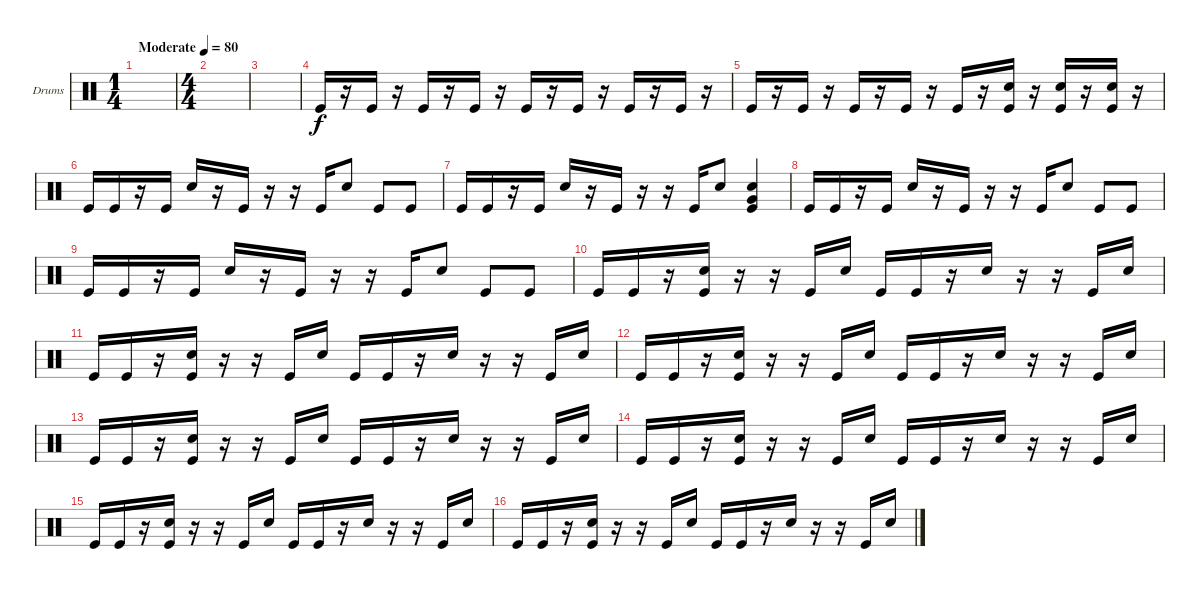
\bracketExtendMode groupsimilarinstruments
\firstSystemTrackNameOrientation horizontal
\otherSystemsTrackNameOrientation horizontal
\track ("Drumkit" "Drums") {instrument percussion}
\staff {score}
\articulation defaults
\ts (1 4)
\beaming (8 2)
\tempo (80 "Moderate")
\clef neutral
\scale
0.391473
\ks c
|
\ts (4 4)
\beaming (8 2 2 2 2)
\scale
0.391473 |
\scale
0.217054 |
\scale
0.333333 "Kick (hit)".16 r.16 "Kick (hit)".16 r.16 "Kick (hit)".16 r.16 "Kick (hit)".16 r.16 "Kick (hit)".16 r.16 "Kick (hit)".16 r.16 "Kick (hit)".16 r.16 "Kick (hit)".16 r.16 |
\scale
0.333333 "Kick (hit)".16 r.16 "Kick (hit)".16 r.16 "Kick (hit)".16 r.16 "Kick (hit)".16 r.16 "Kick (hit)".16 r.16 ("Kick (hit)" "Snare (hit) 2").16 r.16 ("Kick (hit)" "Snare (hit) 2").16 r.16 ("Kick (hit)" "Snare (hit) 2").16 r.16 |
\scale
0.333333 "Kick (hit)".16 "Kick (hit)".16 r.16 "Kick (hit)".16 "Snare (hit) 2".16 r.16 "Kick (hit)".16 r.16 r.16 "Kick (hit)".16 "Snare (hit) 2".8 "Kick (hit)".8 "Kick (hit)".8 |
\scale
0.333333 "Kick (hit)".16 "Kick (hit)".16 r.16 "Kick (hit)".16 "Snare (hit) 2".16 r.16 "Kick (hit)".16 r.16 r.16 "Kick (hit)".16 "Snare (hit) 2".8 ("Kick (hit)" "Snare (hit) 2" "Very Low Tom (hit)").4 |
\scale
0.333333 "Kick (hit)".16 "Kick (hit)".16 r.16 "Kick (hit)".16 "Snare (hit) 2".16 r.16 "Kick (hit)".16 r.16 r.16 "Kick (hit)".16 "Snare (hit) 2".8 "Kick (hit)".8 "Kick (hit)".8 |
\scale
0.333333 "Kick (hit)".16 "Kick (hit)".16 r.16 "Kick (hit)".16 "Snare (hit) 2".16 r.16 "Kick (hit)".16 r.16 r.16 "Kick (hit)".16 "Snare (hit) 2".8 "Kick (hit)".8 "Kick (hit)".8 |
\scale
0.333333 "Kick (hit)".16 "Kick (hit)".16 r.16 ("Kick (hit)" "Snare (hit) 2").16 r.16 r.16 "Kick (hit)".16 "Snare (hit) 2".16 "Kick (hit)".16 "Kick (hit)".16 r.16 "Snare (hit) 2".16 r.16 r.16 "Kick (hit)".16 "Snare (hit) 2".16 |
\scale
0.333333 "Kick (hit)".16 "Kick (hit)".16 r.16 ("Kick (hit)" "Snare (hit) 2").16 r.16 r.16 "Kick (hit)".16 "Snare (hit) 2".16 "Kick (hit)".16 "Kick (hit)".16 r.16 "Snare (hit) 2".16 r.16 r.16 "Kick (hit)".16 "Snare (hit) 2".16 |
\scale
0.333333 "Kick (hit)".16 "Kick (hit)".16 r.16 ("Kick (hit)" "Snare (hit) 2").16 r.16 r.16 "Kick (hit)".16 "Snare (hit) 2".16 "Kick (hit)".16 "Kick (hit)".16 r.16 "Snare (hit) 2".16 r.16 r.16 "Kick (hit)".16 "Snare (hit) 2".16 |
\scale
0.333333 "Kick (hit)".16 "Kick (hit)".16 r.16 ("Kick (hit)" "Snare (hit) 2").16 r.16 r.16 "Kick (hit)".16 "Snare (hit) 2".16 "Kick (hit)".16 "Kick (hit)".16 r.16 "Snare (hit) 2".16 r.16 r.16 "Kick (hit)".16 "Snare (hit) 2".16 |
\scale
0.333333 "Kick (hit)".16 "Kick (hit)".16 r.16 ("Kick (hit)" "Snare (hit) 2").16 r.16 r.16 "Kick (hit)".16 "Snare (hit) 2".16 "Kick (hit)".16 "Kick (hit)".16 r.16 "Snare (hit) 2".16 r.16 r.16 "Kick (hit)".16 "Snare (hit) 2".16 |
\scale
0.333333 "Kick (hit)".16 "Kick (hit)".16 r.16 ("Kick (hit)" "Snare (hit) 2").16 r.16 r.16 "Kick (hit)".16 "Snare (hit) 2".16 "Kick (hit)".16 "Kick (hit)".16 r.16 "Snare (hit) 2".16 r.16 r.16 "Kick (hit)".16 "Snare (hit) 2".16 |
\scale
0.333333 "Kick (hit)".16 "Kick (hit)".16 r.16 ("Kick (hit)" "Snare (hit) 2").16 r.16 r.16 "Kick (hit)".16 "Snare (hit) 2".16 "Kick (hit)".16 "Kick (hit)".16 r.16 "Snare (hit) 2".16 r.16 r.16 "Kick (hit)".16 "Snare (hit) 2".16
